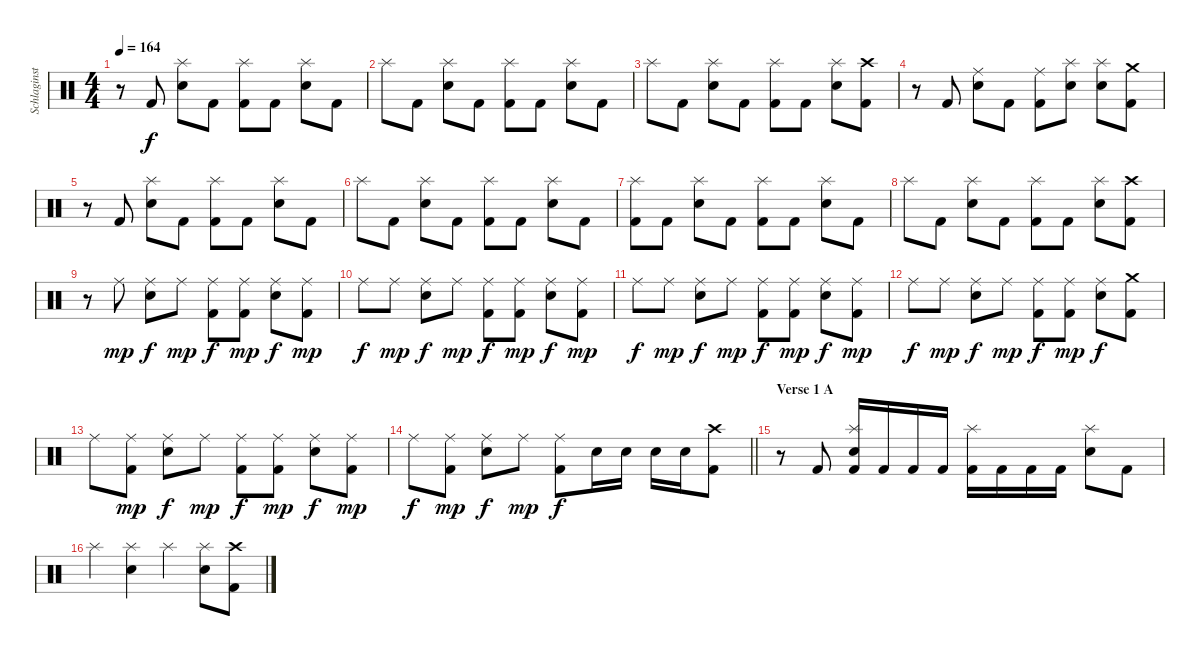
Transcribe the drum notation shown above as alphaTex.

\track ("Schlaginstrumente - Auswahl" "Schlaginst") {instrument percussion}
\staff {score}
\articulation defaults
\ts (4 4)
\tempo 164
\clef neutral
\ks c
r.8{dy f} "Kick (hit) 2".8 ("Splash (hit)" "Electric Snare (hit)").8 "Kick (hit) 2".8 ("Splash (hit)" "Kick (hit) 2").8 "Kick (hit) 2".8 ("Splash (hit)" "Electric Snare (hit)").8 "Kick (hit) 2".8 |
"Splash (hit)".8 "Kick (hit) 2".8 ("Splash (hit)" "Electric Snare (hit)").8 "Kick (hit) 2".8 ("Splash (hit)" "Kick (hit) 2").8 "Kick (hit) 2".8 ("Splash (hit)" "Electric Snare (hit)").8 "Kick (hit) 2".8 |
"Splash (hit)".8 "Kick (hit) 2".8 ("Splash (hit)" "Electric Snare (hit)").8 "Kick (hit) 2".8 ("Splash (hit)" "Kick (hit) 2").8 "Kick (hit) 2".8 ("Splash (hit)" "Electric Snare (hit)").8 ("Crash high (hit)" "Kick (hit) 2").8 |
r.8 "Kick (hit) 2".8 ("Ride (middle)" "Electric Snare (hit)").8 "Kick (hit) 2".8 ("Ride (middle)" "Kick (hit) 2").8 ("Splash (hit)" "Electric Snare (hit)").8 ("Splash (hit)" "Electric Snare (hit)").8 ("Crash medium (hit)" "Kick (hit) 2").8 |
r.8 "Kick (hit) 2".8 ("Splash (hit)" "Electric Snare (hit)").8 "Kick (hit) 2".8 ("Splash (hit)" "Kick (hit) 2").8 "Kick (hit) 2".8 ("Splash (hit)" "Electric Snare (hit)").8 "Kick (hit) 2".8 |
"Splash (hit)".8 "Kick (hit) 2".8 ("Splash (hit)" "Electric Snare (hit)").8 "Kick (hit) 2".8 ("Splash (hit)" "Kick (hit) 2").8 "Kick (hit) 2".8 ("Splash (hit)" "Electric Snare (hit)").8 "Kick (hit) 2".8 |
("Splash (hit)" "Kick (hit) 2").8 "Kick (hit) 2".8 ("Splash (hit)" "Electric Snare (hit)").8 "Kick (hit) 2".8 ("Splash (hit)" "Kick (hit) 2").8 "Kick (hit) 2".8 ("Splash (hit)" "Electric Snare (hit)").8 "Kick (hit) 2".8 |
"Splash (hit)".8 "Kick (hit) 2".8 ("Splash (hit)" "Electric Snare (hit)").8 "Kick (hit) 2".8 ("Splash (hit)" "Kick (hit) 2").8 "Kick (hit) 2".8 ("Splash (hit)" "Electric Snare (hit)").8 ("Crash high (hit)" "Kick (hit) 2").8 |
r.8 "Ride (middle)".8{dy mp} ("Ride (middle)" "Electric Snare (hit)").8{dy f} "Ride (middle)".8{dy mp} ("Ride (middle)" "Kick (hit) 2").8{dy f} ("Ride (middle)" "Kick (hit) 2").8{dy mp} ("Ride (middle)" "Electric Snare (hit)").8{dy f} ("Ride (middle)" "Kick (hit) 2").8{dy mp} |
"Ride (middle)".8{dy f} "Ride (middle)".8{dy mp} ("Ride (middle)" "Electric Snare (hit)").8{dy f} "Ride (middle)".8{dy mp} ("Ride (middle)" "Kick (hit) 2").8{dy f} ("Ride (middle)" "Kick (hit) 2").8{dy mp} ("Ride (middle)" "Electric Snare (hit)").8{dy f} ("Ride (middle)" "Kick (hit) 2").8{dy mp} |
"Ride (middle)".8{dy f} "Ride (middle)".8{dy mp} ("Ride (middle)" "Electric Snare (hit)").8{dy f} "Ride (middle)".8{dy mp} ("Ride (middle)" "Kick (hit) 2").8{dy f} ("Ride (middle)" "Kick (hit) 2").8{dy mp} ("Ride (middle)" "Electric Snare (hit)").8{dy f} ("Ride (middle)" "Kick (hit) 2").8{dy mp} |
"Ride (middle)".8{dy f} "Ride (middle)".8{dy mp} ("Ride (middle)" "Electric Snare (hit)").8{dy f} "Ride (middle)".8{dy mp} ("Ride (middle)" "Kick (hit) 2").8{dy f} ("Ride (middle)" "Kick (hit) 2").8{dy mp} ("Ride (middle)" "Electric Snare (hit)").8{dy f} ("Crash medium (hit)" "Kick (hit) 2").8 |
"Ride (middle)".8 ("Ride (middle)" "Kick (hit) 2").8{dy mp} ("Ride (middle)" "Electric Snare (hit)").8{dy f} "Ride (middle)".8{dy mp} ("Ride (middle)" "Kick (hit) 2").8{dy f} ("Ride (middle)" "Kick (hit) 2").8{dy mp} ("Ride (middle)" "Electric Snare (hit)").8{dy f} ("Ride (middle)" "Kick (hit) 2").8{dy mp} |
\barLineRight lightlight "Ride (middle)".8{dy f}
("Ride (middle)" "Kick (hit) 2").8{dy mp} ("Ride (middle)" "Electric Snare (hit)").8{dy f} "Ride (middle)".8{dy mp} ("Ride (middle)" "Kick (hit) 2").8{dy f} "Electric Snare (hit)".16 "Electric Snare (hit)".16 "Electric Snare (hit)".16 "Electric Snare (hit)".16 ("Crash high (hit)" "Kick (hit) 2").8 |
\section ("" "Verse 1 A")
r.8 "Kick (hit) 2".8 ("Splash (hit)" "Electric Snare (hit)" "Kick (hit) 2").16 "Kick (hit) 2".16 "Kick (hit) 2".16 "Kick (hit) 2".16 ("Splash (hit)" "Kick (hit) 2").16 "Kick (hit) 2".16 "Kick (hit) 2".16 "Kick (hit) 2".16 ("Splash (hit)" "Electric Snare (hit)").8 "Kick (hit) 2".8 |
"Splash (hit)".4 ("Splash (hit)" "Electric Snare (hit)").4 "Splash (hit)".4 ("Splash (hit)" "Electric Snare (hit)").8 ("Crash high (hit)" "Kick (hit) 2").8
